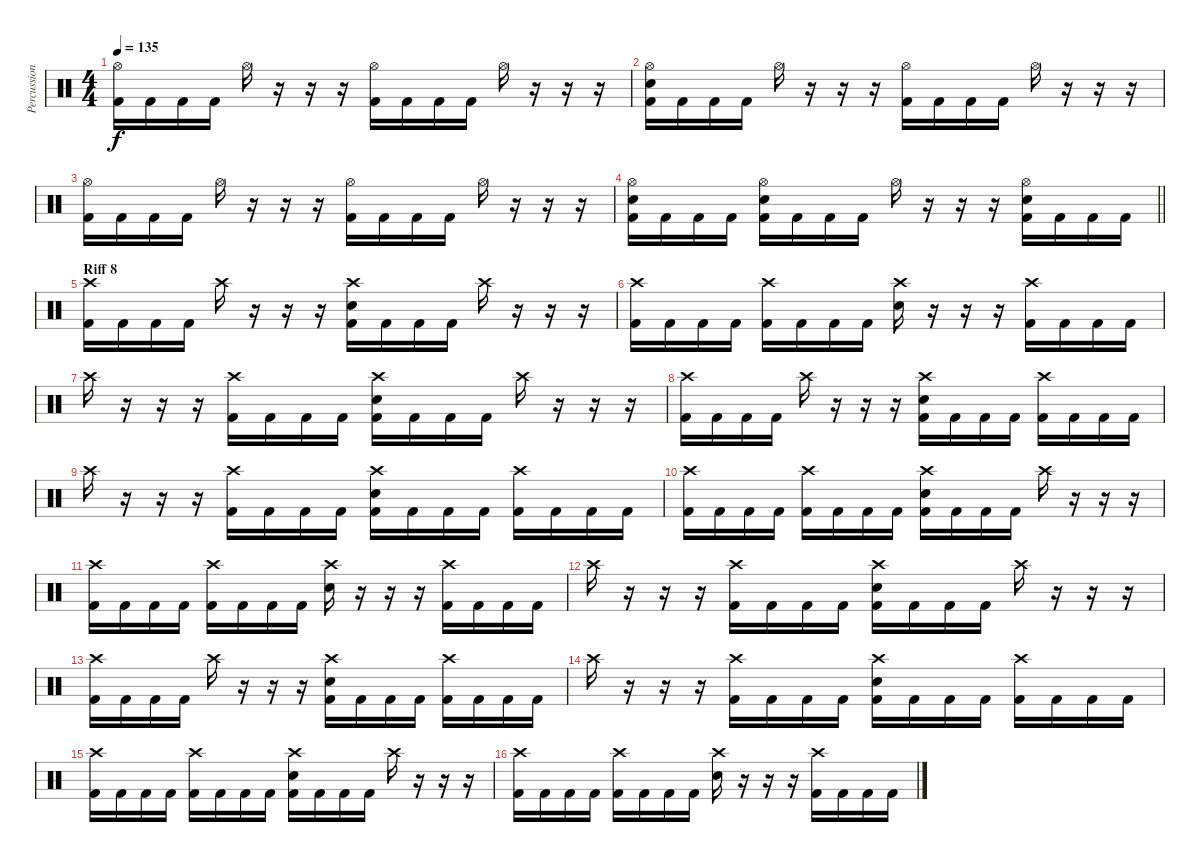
\track ("Percussion" "Percussion") {instrument percussion}
\staff {score}
\articulation defaults
\ts (4 4)
\tempo 135
\clef neutral
\ks c
("Hi-Hat (open)" "Kick (hit) 2").16{dy f} "Kick (hit) 2".16 "Kick (hit) 2".16 "Kick (hit) 2".16 "Hi-Hat (open)".16 r.16 r.16 r.16 ("Hi-Hat (open)" "Kick (hit) 2").16 "Kick (hit) 2".16 "Kick (hit) 2".16 "Kick (hit) 2".16 "Hi-Hat (open)".16 r.16 r.16 r.16 |
("Hi-Hat (open)" "Snare (hit) 2" "Kick (hit) 2").16 "Kick (hit) 2".16 "Kick (hit) 2".16 "Kick (hit) 2".16 "Hi-Hat (open)".16 r.16 r.16 r.16 ("Hi-Hat (open)" "Kick (hit) 2").16 "Kick (hit) 2".16 "Kick (hit) 2".16 "Kick (hit) 2".16 "Hi-Hat (open)".16 r.16 r.16 r.16 |
("Hi-Hat (open)" "Kick (hit) 2").16 "Kick (hit) 2".16 "Kick (hit) 2".16 "Kick (hit) 2".16 "Hi-Hat (open)".16 r.16 r.16 r.16 ("Hi-Hat (open)" "Kick (hit) 2").16 "Kick (hit) 2".16 "Kick (hit) 2".16 "Kick (hit) 2".16 "Hi-Hat (open)".16 r.16 r.16 r.16 |
\barLineRight lightlight
("Hi-Hat (open)" "Snare (hit) 2" "Kick (hit) 2").16 "Kick (hit) 2".16 "Kick (hit) 2".16 "Kick (hit) 2".16 ("Hi-Hat (open)" "Snare (hit) 2" "Kick (hit) 2").16 "Kick (hit) 2".16 "Kick (hit) 2".16 "Kick (hit) 2".16 "Hi-Hat (open)".16 r.16 r.16 r.16 ("Hi-Hat (open)" "Snare (hit) 2" "Kick (hit) 2").16 "Kick (hit) 2".16 "Kick (hit) 2".16 "Kick (hit) 2".16 |
\section ("" "Riff 8")
("Crash high (hit)" "Kick (hit) 2").16 "Kick (hit) 2".16 "Kick (hit) 2".16 "Kick (hit) 2".16 "Crash high (hit)".16 r.16 r.16 r.16 ("Crash high (hit)" "Snare (hit) 2" "Kick (hit) 2").16 "Kick (hit) 2".16 "Kick (hit) 2".16 "Kick (hit) 2".16 "Crash high (hit)".16 r.16 r.16 r.16 |
("Crash high (hit)" "Kick (hit) 2").16 "Kick (hit) 2".16 "Kick (hit) 2".16 "Kick (hit) 2".16 ("Crash high (hit)" "Kick (hit) 2").16 "Kick (hit) 2".16 "Kick (hit) 2".16 "Kick (hit) 2".16 ("Crash high (hit)" "Snare (hit) 2").16 r.16 r.16 r.16 ("Crash high (hit)" "Kick (hit) 2").16 "Kick (hit) 2".16 "Kick (hit) 2".16 "Kick (hit) 2".16 |
"Crash high (hit)".16 r.16 r.16 r.16 ("Crash high (hit)" "Kick (hit) 2").16 "Kick (hit) 2".16 "Kick (hit) 2".16 "Kick (hit) 2".16 ("Crash high (hit)" "Snare (hit) 2" "Kick (hit) 2").16 "Kick (hit) 2".16 "Kick (hit) 2".16 "Kick (hit) 2".16 "Crash high (hit)".16 r.16 r.16 r.16 |
("Crash high (hit)" "Kick (hit) 2").16 "Kick (hit) 2".16 "Kick (hit) 2".16 "Kick (hit) 2".16 "Crash high (hit)".16 r.16 r.16 r.16 ("Crash high (hit)" "Snare (hit) 2" "Kick (hit) 2").16 "Kick (hit) 2".16 "Kick (hit) 2".16 "Kick (hit) 2".16 ("Crash high (hit)" "Kick (hit) 2").16 "Kick (hit) 2".16 "Kick (hit) 2".16 "Kick (hit) 2".16 |
"Crash high (hit)".16 r.16 r.16 r.16 ("Crash high (hit)" "Kick (hit) 2").16 "Kick (hit) 2".16 "Kick (hit) 2".16 "Kick (hit) 2".16 ("Crash high (hit)" "Snare (hit) 2" "Kick (hit) 2").16 "Kick (hit) 2".16 "Kick (hit) 2".16 "Kick (hit) 2".16 ("Crash high (hit)" "Kick (hit) 2").16 "Kick (hit) 2".16 "Kick (hit) 2".16 "Kick (hit) 2".16 |
("Crash high (hit)" "Kick (hit) 2").16 "Kick (hit) 2".16 "Kick (hit) 2".16 "Kick (hit) 2".16 ("Crash high (hit)" "Kick (hit) 2").16 "Kick (hit) 2".16 "Kick (hit) 2".16 "Kick (hit) 2".16 ("Crash high (hit)" "Snare (hit) 2" "Kick (hit) 2").16 "Kick (hit) 2".16 "Kick (hit) 2".16 "Kick (hit) 2".16 "Crash high (hit)".16 r.16 r.16 r.16 |
("Crash high (hit)" "Kick (hit) 2").16 "Kick (hit) 2".16 "Kick (hit) 2".16 "Kick (hit) 2".16 ("Crash high (hit)" "Kick (hit) 2").16 "Kick (hit) 2".16 "Kick (hit) 2".16 "Kick (hit) 2".16 ("Crash high (hit)" "Snare (hit) 2").16 r.16 r.16 r.16 ("Crash high (hit)" "Kick (hit) 2").16 "Kick (hit) 2".16 "Kick (hit) 2".16 "Kick (hit) 2".16 |
"Crash high (hit)".16 r.16 r.16 r.16 ("Crash high (hit)" "Kick (hit) 2").16 "Kick (hit) 2".16 "Kick (hit) 2".16 "Kick (hit) 2".16 ("Crash high (hit)" "Snare (hit) 2" "Kick (hit) 2").16 "Kick (hit) 2".16 "Kick (hit) 2".16 "Kick (hit) 2".16 "Crash high (hit)".16 r.16 r.16 r.16 |
("Crash high (hit)" "Kick (hit) 2").16 "Kick (hit) 2".16 "Kick (hit) 2".16 "Kick (hit) 2".16 "Crash high (hit)".16 r.16 r.16 r.16 ("Crash high (hit)" "Snare (hit) 2" "Kick (hit) 2").16 "Kick (hit) 2".16 "Kick (hit) 2".16 "Kick (hit) 2".16 ("Crash high (hit)" "Kick (hit) 2").16 "Kick (hit) 2".16 "Kick (hit) 2".16 "Kick (hit) 2".16 |
"Crash high (hit)".16 r.16 r.16 r.16 ("Crash high (hit)" "Kick (hit) 2").16 "Kick (hit) 2".16 "Kick (hit) 2".16 "Kick (hit) 2".16 ("Crash high (hit)" "Snare (hit) 2" "Kick (hit) 2").16 "Kick (hit) 2".16 "Kick (hit) 2".16 "Kick (hit) 2".16 ("Crash high (hit)" "Kick (hit) 2").16 "Kick (hit) 2".16 "Kick (hit) 2".16 "Kick (hit) 2".16 |
("Crash high (hit)" "Kick (hit) 2").16 "Kick (hit) 2".16 "Kick (hit) 2".16 "Kick (hit) 2".16 ("Crash high (hit)" "Kick (hit) 2").16 "Kick (hit) 2".16 "Kick (hit) 2".16 "Kick (hit) 2".16 ("Crash high (hit)" "Snare (hit) 2" "Kick (hit) 2").16 "Kick (hit) 2".16 "Kick (hit) 2".16 "Kick (hit) 2".16 "Crash high (hit)".16 r.16 r.16 r.16 |
("Crash high (hit)" "Kick (hit) 2").16 "Kick (hit) 2".16 "Kick (hit) 2".16 "Kick (hit) 2".16 ("Crash high (hit)" "Kick (hit) 2").16 "Kick (hit) 2".16 "Kick (hit) 2".16 "Kick (hit) 2".16 ("Crash high (hit)" "Snare (hit) 2").16 r.16 r.16 r.16 ("Crash high (hit)" "Kick (hit) 2").16 "Kick (hit) 2".16 "Kick (hit) 2".16 "Kick (hit) 2".16
